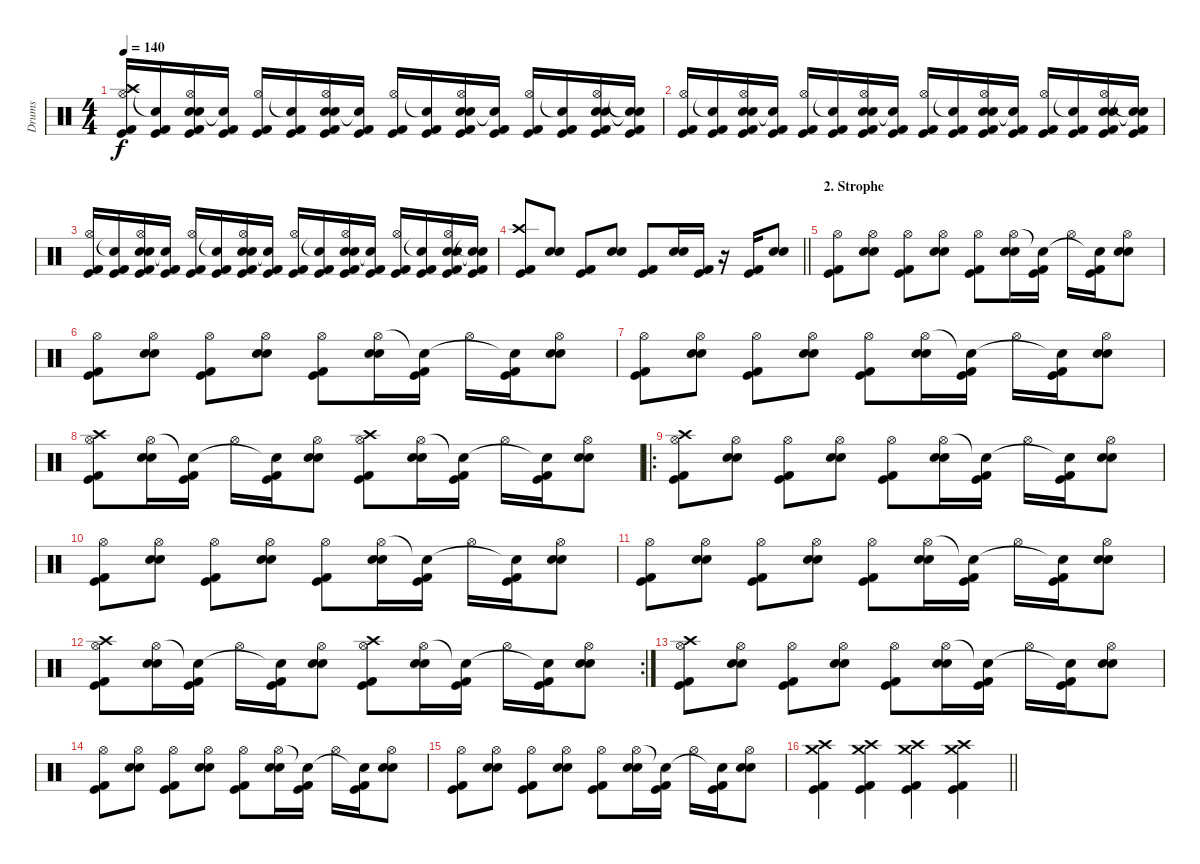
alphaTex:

\track ("Drums" "Drums") {instrument percussion}
\staff {score}
\articulation defaults
\ts (4 4)
\tempo 140
\clef neutral
\ks c
("Kick (hit) 2" "Crash high (hit)" "Hi-Hat (open)" "Kick (hit)").16{dy f} ("Kick (hit) 2" "Snare (hit)"{t} "Kick (hit)").16 ("Kick (hit) 2" "Electric Snare (hit)" "Hi-Hat (open)" "Snare (hit) 2" "Kick (hit)").16 ("Kick (hit) 2" "Snare (hit)"{t} "Kick (hit)").16 ("Kick (hit) 2" "Hi-Hat (open)" "Kick (hit)").16 ("Kick (hit) 2" "Snare (hit)"{t} "Kick (hit)").16 ("Kick (hit) 2" "Electric Snare (hit)" "Hi-Hat (open)" "Snare (hit) 2" "Kick (hit)").16 ("Kick (hit) 2" "Snare (hit)"{t} "Kick (hit)").16 ("Kick (hit) 2" "Hi-Hat (open)" "Kick (hit)").16 ("Kick (hit) 2" "Snare (hit)"{t} "Kick (hit)").16 ("Kick (hit) 2" "Electric Snare (hit)" "Hi-Hat (open)" "Snare (hit) 2" "Kick (hit)").16 ("Kick (hit) 2" "Snare (hit)"{t} "Kick (hit)").16 ("Kick (hit) 2" "Hi-Hat (open)" "Kick (hit)").16 ("Kick (hit) 2" "Snare (hit)"{t} "Kick (hit)").16 ("Kick (hit) 2" "Electric Snare (hit)" "Hi-Hat (open)" "Snare (hit) 2" "Kick (hit)").16 ("Kick (hit) 2" "Snare (hit)"{t} "Snare (hit)"{t} "Kick (hit)").16 |
("Kick (hit) 2" "Hi-Hat (open)" "Kick (hit)").16 ("Kick (hit) 2" "Snare (hit)"{t} "Kick (hit)").16 ("Kick (hit) 2" "Electric Snare (hit)" "Hi-Hat (open)" "Snare (hit) 2" "Kick (hit)").16 ("Kick (hit) 2" "Snare (hit)"{t} "Kick (hit)").16 ("Kick (hit) 2" "Hi-Hat (open)" "Kick (hit)").16 ("Kick (hit) 2" "Snare (hit)"{t} "Kick (hit)").16 ("Kick (hit) 2" "Electric Snare (hit)" "Hi-Hat (open)" "Snare (hit) 2" "Kick (hit)").16 ("Kick (hit) 2" "Snare (hit)"{t} "Kick (hit)").16 ("Kick (hit) 2" "Hi-Hat (open)" "Kick (hit)").16 ("Kick (hit) 2" "Snare (hit)"{t} "Kick (hit)").16 ("Kick (hit) 2" "Electric Snare (hit)" "Hi-Hat (open)" "Snare (hit) 2" "Kick (hit)").16 ("Kick (hit) 2" "Snare (hit)"{t} "Kick (hit)").16 ("Kick (hit) 2" "Hi-Hat (open)" "Kick (hit)").16 ("Kick (hit) 2" "Snare (hit)"{t} "Kick (hit)").16 ("Kick (hit) 2" "Electric Snare (hit)" "Hi-Hat (open)" "Snare (hit) 2" "Kick (hit)").16 ("Kick (hit) 2" "Snare (hit)"{t} "Snare (hit)"{t} "Kick (hit)").16 |
("Kick (hit) 2" "Hi-Hat (open)" "Kick (hit)").16 ("Kick (hit) 2" "Snare (hit)"{t} "Kick (hit)").16 ("Kick (hit) 2" "Electric Snare (hit)" "Hi-Hat (open)" "Snare (hit) 2" "Kick (hit)").16 ("Kick (hit) 2" "Snare (hit)"{t} "Kick (hit)").16 ("Kick (hit) 2" "Hi-Hat (open)" "Kick (hit)").16 ("Kick (hit) 2" "Snare (hit)"{t} "Kick (hit)").16 ("Kick (hit) 2" "Electric Snare (hit)" "Hi-Hat (open)" "Snare (hit) 2" "Kick (hit)").16 ("Kick (hit) 2" "Snare (hit)"{t} "Kick (hit)").16 ("Kick (hit) 2" "Hi-Hat (open)" "Kick (hit)").16 ("Kick (hit) 2" "Snare (hit)"{t} "Kick (hit)").16 ("Kick (hit) 2" "Electric Snare (hit)" "Hi-Hat (open)" "Snare (hit) 2" "Kick (hit)").16 ("Kick (hit) 2" "Snare (hit)"{t} "Kick (hit)").16 ("Kick (hit) 2" "Hi-Hat (open)" "Kick (hit)").16 ("Kick (hit) 2" "Snare (hit)"{t} "Kick (hit)").16 ("Kick (hit) 2" "Electric Snare (hit)" "Hi-Hat (open)" "Snare (hit) 2" "Kick (hit)").16 ("Kick (hit) 2" "Snare (hit)"{t} "Snare (hit)"{t} "Kick (hit)").16 |
\barLineRight lightlight
("Kick (hit) 2" "Crash high (hit)" "Kick (hit)").8 ("Electric Snare (hit)" "Snare (hit) 2").8 ("Kick (hit) 2" "Kick (hit)").8 ("Electric Snare (hit)" "Snare (hit) 2").8 ("Kick (hit) 2" "Kick (hit)").8 ("Electric Snare (hit)" "Snare (hit) 2").16 ("Kick (hit) 2" "Kick (hit)").16 r.16 ("Kick (hit) 2" "Kick (hit)").16 ("Electric Snare (hit)" "Snare (hit) 2").8 |
\section ("" "2. Strophe")
("Kick (hit) 2" "Hi-Hat (open)" "Kick (hit)").8 ("Electric Snare (hit)" "Hi-Hat (open)" "Snare (hit) 2").8 ("Kick (hit) 2" "Hi-Hat (open)" "Kick (hit)").8 ("Electric Snare (hit)" "Hi-Hat (open)" "Snare (hit) 2").8 ("Kick (hit) 2" "Hi-Hat (open)" "Kick (hit)").8 ("Electric Snare (hit)" "Hi-Hat (open)" "Snare (hit) 2").16 ("Kick (hit) 2" "Snare (hit)"{t} "Kick (hit)").16 "Hi-Hat (open)".16 ("Kick (hit) 2" "Snare (hit)"{t} "Kick (hit)").16 ("Electric Snare (hit)" "Hi-Hat (open)" "Snare (hit) 2").8 |
("Kick (hit) 2" "Hi-Hat (open)" "Kick (hit)").8 ("Electric Snare (hit)" "Hi-Hat (open)" "Snare (hit) 2").8 ("Kick (hit) 2" "Hi-Hat (open)" "Kick (hit)").8 ("Electric Snare (hit)" "Hi-Hat (open)" "Snare (hit) 2").8 ("Kick (hit) 2" "Hi-Hat (open)" "Kick (hit)").8 ("Electric Snare (hit)" "Hi-Hat (open)" "Snare (hit) 2").16 ("Kick (hit) 2" "Snare (hit)"{t} "Kick (hit)").16 "Hi-Hat (open)".16 ("Kick (hit) 2" "Snare (hit)"{t} "Kick (hit)").16 ("Electric Snare (hit)" "Hi-Hat (open)" "Snare (hit) 2").8 |
("Kick (hit) 2" "Hi-Hat (open)" "Kick (hit)").8 ("Electric Snare (hit)" "Hi-Hat (open)" "Snare (hit) 2").8 ("Kick (hit) 2" "Hi-Hat (open)" "Kick (hit)").8 ("Electric Snare (hit)" "Hi-Hat (open)" "Snare (hit) 2").8 ("Kick (hit) 2" "Hi-Hat (open)" "Kick (hit)").8 ("Electric Snare (hit)" "Hi-Hat (open)" "Snare (hit) 2").16 ("Kick (hit) 2" "Snare (hit)"{t} "Kick (hit)").16 "Hi-Hat (open)".16 ("Kick (hit) 2" "Snare (hit)"{t} "Kick (hit)").16 ("Electric Snare (hit)" "Hi-Hat (open)" "Snare (hit) 2").8 |
("Kick (hit) 2" "Crash high (hit)" "Hi-Hat (open)" "Kick (hit)").8 ("Electric Snare (hit)" "Hi-Hat (open)" "Snare (hit) 2").16 ("Kick (hit) 2" "Snare (hit)"{t} "Kick (hit)").16 "Hi-Hat (open)".16 ("Kick (hit) 2" "Snare (hit)"{t} "Kick (hit)").16 ("Electric Snare (hit)" "Hi-Hat (open)" "Snare (hit) 2").8 ("Kick (hit) 2" "Crash high (hit)" "Hi-Hat (open)" "Kick (hit)").8 ("Electric Snare (hit)" "Hi-Hat (open)" "Snare (hit) 2").16 ("Kick (hit) 2" "Snare (hit)"{t} "Kick (hit)").16 "Hi-Hat (open)".16 ("Kick (hit) 2" "Snare (hit)"{t} "Kick (hit)").16 ("Electric Snare (hit)" "Hi-Hat (open)" "Snare (hit) 2").8 |
\ro
("Kick (hit) 2" "Crash high (hit)" "Hi-Hat (open)" "Kick (hit)").8 ("Electric Snare (hit)" "Hi-Hat (open)" "Snare (hit) 2").8 ("Kick (hit) 2" "Hi-Hat (open)" "Kick (hit)").8 ("Electric Snare (hit)" "Hi-Hat (open)" "Snare (hit) 2").8 ("Kick (hit) 2" "Hi-Hat (open)" "Kick (hit)").8 ("Electric Snare (hit)" "Hi-Hat (open)" "Snare (hit) 2").16 ("Kick (hit) 2" "Snare (hit)"{t} "Kick (hit)").16 "Hi-Hat (open)".16 ("Kick (hit) 2" "Snare (hit)"{t} "Kick (hit)").16 ("Electric Snare (hit)" "Hi-Hat (open)" "Snare (hit) 2").8 |
("Kick (hit) 2" "Hi-Hat (open)" "Kick (hit)").8 ("Electric Snare (hit)" "Hi-Hat (open)" "Snare (hit) 2").8 ("Kick (hit) 2" "Hi-Hat (open)" "Kick (hit)").8 ("Electric Snare (hit)" "Hi-Hat (open)" "Snare (hit) 2").8 ("Kick (hit) 2" "Hi-Hat (open)" "Kick (hit)").8 ("Electric Snare (hit)" "Hi-Hat (open)" "Snare (hit) 2").16 ("Kick (hit) 2" "Snare (hit)"{t} "Kick (hit)").16 "Hi-Hat (open)".16 ("Kick (hit) 2" "Snare (hit)"{t} "Kick (hit)").16 ("Electric Snare (hit)" "Hi-Hat (open)" "Snare (hit) 2").8 |
("Kick (hit) 2" "Hi-Hat (open)" "Kick (hit)").8 ("Electric Snare (hit)" "Hi-Hat (open)" "Snare (hit) 2").8 ("Kick (hit) 2" "Hi-Hat (open)" "Kick (hit)").8 ("Electric Snare (hit)" "Hi-Hat (open)" "Snare (hit) 2").8 ("Kick (hit) 2" "Hi-Hat (open)" "Kick (hit)").8 ("Electric Snare (hit)" "Hi-Hat (open)" "Snare (hit) 2").16 ("Kick (hit) 2" "Snare (hit)"{t} "Kick (hit)").16 "Hi-Hat (open)".16 ("Kick (hit) 2" "Snare (hit)"{t} "Kick (hit)").16 ("Electric Snare (hit)" "Hi-Hat (open)" "Snare (hit) 2").8 |
\rc 2
("Kick (hit) 2" "Crash high (hit)" "Hi-Hat (open)" "Kick (hit)").8 ("Electric Snare (hit)" "Hi-Hat (open)" "Snare (hit) 2").16 ("Kick (hit) 2" "Snare (hit)"{t} "Kick (hit)").16 "Hi-Hat (open)".16 ("Kick (hit) 2" "Snare (hit)"{t} "Kick (hit)").16 ("Electric Snare (hit)" "Hi-Hat (open)" "Snare (hit) 2").8 ("Kick (hit) 2" "Crash high (hit)" "Hi-Hat (open)" "Kick (hit)").8 ("Electric Snare (hit)" "Hi-Hat (open)" "Snare (hit) 2").16 ("Kick (hit) 2" "Snare (hit)"{t} "Kick (hit)").16 "Hi-Hat (open)".16 ("Kick (hit) 2" "Snare (hit)"{t} "Kick (hit)").16 ("Electric Snare (hit)" "Hi-Hat (open)" "Snare (hit) 2").8 |
("Kick (hit) 2" "Crash high (hit)" "Hi-Hat (open)" "Kick (hit)").8 ("Electric Snare (hit)" "Hi-Hat (open)" "Snare (hit) 2").8 ("Kick (hit) 2" "Hi-Hat (open)" "Kick (hit)").8 ("Electric Snare (hit)" "Hi-Hat (open)" "Snare (hit) 2").8 ("Kick (hit) 2" "Hi-Hat (open)" "Kick (hit)").8 ("Electric Snare (hit)" "Hi-Hat (open)" "Snare (hit) 2").16 ("Kick (hit) 2" "Snare (hit)"{t} "Kick (hit)").16 "Hi-Hat (open)".16 ("Kick (hit) 2" "Snare (hit)"{t} "Kick (hit)").16 ("Electric Snare (hit)" "Hi-Hat (open)" "Snare (hit) 2").8 |
("Kick (hit) 2" "Hi-Hat (open)" "Kick (hit)").8 ("Electric Snare (hit)" "Hi-Hat (open)" "Snare (hit) 2").8 ("Kick (hit) 2" "Hi-Hat (open)" "Kick (hit)").8 ("Electric Snare (hit)" "Hi-Hat (open)" "Snare (hit) 2").8 ("Kick (hit) 2" "Hi-Hat (open)" "Kick (hit)").8 ("Electric Snare (hit)" "Hi-Hat (open)" "Snare (hit) 2").16 ("Kick (hit) 2" "Snare (hit)"{t} "Kick (hit)").16 "Hi-Hat (open)".16 ("Kick (hit) 2" "Snare (hit)"{t} "Kick (hit)").16 ("Electric Snare (hit)" "Hi-Hat (open)" "Snare (hit) 2").8 |
("Kick (hit) 2" "Hi-Hat (open)" "Kick (hit)").8 ("Electric Snare (hit)" "Hi-Hat (open)" "Snare (hit) 2").8 ("Kick (hit) 2" "Hi-Hat (open)" "Kick (hit)").8 ("Electric Snare (hit)" "Hi-Hat (open)" "Snare (hit) 2").8 ("Kick (hit) 2" "Hi-Hat (open)" "Kick (hit)").8 ("Electric Snare (hit)" "Hi-Hat (open)" "Snare (hit) 2").16 ("Kick (hit) 2" "Snare (hit)"{t} "Kick (hit)").16 "Hi-Hat (open)".16 ("Kick (hit) 2" "Snare (hit)"{t} "Kick (hit)").16 ("Electric Snare (hit)" "Hi-Hat (open)" "Snare (hit) 2").8 |
\barLineRight lightlight
("Kick (hit) 2" "Crash medium (hit)" "Crash high (hit)" "Kick (hit)").4 ("Kick (hit) 2" "Crash medium (hit)" "Crash high (hit)" "Kick (hit)").4 ("Kick (hit) 2" "Crash medium (hit)" "Crash high (hit)" "Kick (hit)").4 ("Kick (hit) 2" "Crash medium (hit)" "Crash high (hit)" "Kick (hit)").4
